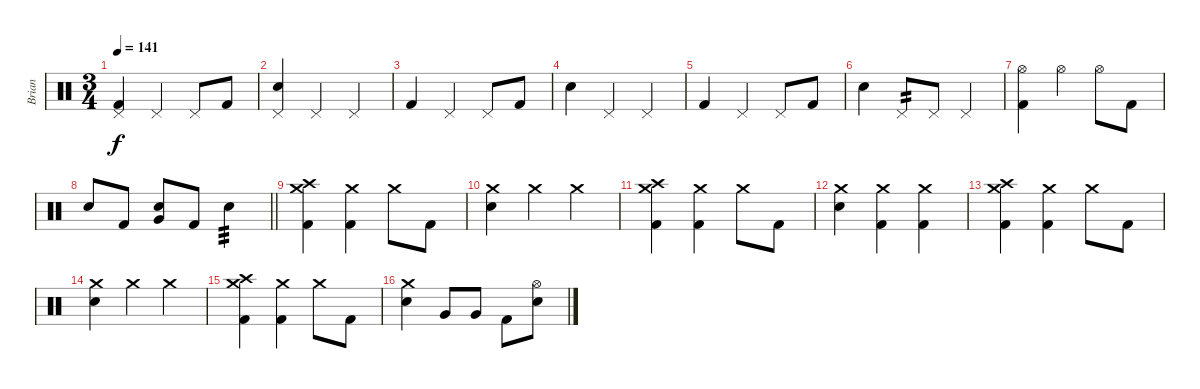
\track ("Brian" "Brian") {instrument percussion}
\staff {score}
\articulation defaults
\ts (3 4)
\tempo 141
\clef neutral
\ks c
("Pedal Hi-Hat (hit)" "Kick (hit) 2").4{dy f} "Pedal Hi-Hat (hit)".4 "Pedal Hi-Hat (hit)".8 "Kick (hit) 2".8 |
("Pedal Hi-Hat (hit)" "Electric Snare (hit)").4 "Pedal Hi-Hat (hit)".4 "Pedal Hi-Hat (hit)".4 |
"Kick (hit) 2".4 "Pedal Hi-Hat (hit)".4 "Pedal Hi-Hat (hit)".8 "Kick (hit) 2".8 |
"Electric Snare (hit)".4 "Pedal Hi-Hat (hit)".4 "Pedal Hi-Hat (hit)".4 |
"Kick (hit) 2".4 "Pedal Hi-Hat (hit)".4 "Pedal Hi-Hat (hit)".8 "Kick (hit) 2".8 |
"Electric Snare (hit)".4 "Pedal Hi-Hat (hit)".8{tp 2} "Pedal Hi-Hat (hit)".8 "Pedal Hi-Hat (hit)".4 |
("Hi-Hat (open)" "Kick (hit) 2").4 "Hi-Hat (open)".4 "Hi-Hat (open)".8 "Kick (hit) 2".8 |
\barLineRight lightlight "Electric Snare (hit)".8 "Kick (hit) 2".8
("Very Low Tom (hit)" "Electric Snare (hit)").8 "Kick (hit) 2".8 "Electric Snare (hit)".4{tp 3} |
("Crash high (hit)" "Crash medium (hit)" "Kick (hit) 2").4 ("Crash medium (hit)" "Kick (hit) 2").4 "Crash medium (hit)".8 "Kick (hit) 2".8 |
("Crash medium (hit)" "Electric Snare (hit)").4 "Crash medium (hit)".4 "Crash medium (hit)".4 |
("Crash high (hit)" "Crash medium (hit)" "Kick (hit) 2").4 ("Crash medium (hit)" "Kick (hit) 2").4 "Crash medium (hit)".8 "Kick (hit) 2".8 |
("Crash medium (hit)" "Electric Snare (hit)").4 ("Crash medium (hit)" "Kick (hit) 2").4 ("Crash medium (hit)" "Kick (hit) 2").4 |
("Crash high (hit)" "Crash medium (hit)" "Kick (hit) 2").4 ("Crash medium (hit)" "Kick (hit) 2").4 "Crash medium (hit)".8 "Kick (hit) 2".8 |
("Crash medium (hit)" "Electric Snare (hit)").4 "Crash medium (hit)".4 "Crash medium (hit)".4 |
("Crash high (hit)" "Crash medium (hit)" "Kick (hit) 2").4 ("Crash medium (hit)" "Kick (hit) 2").4 "Crash medium (hit)".8 "Kick (hit) 2".8 |
("Crash medium (hit)" "Electric Snare (hit)").4 "Very Low Tom (hit)".8 "Very Low Tom (hit)".8 "Kick (hit) 2".8 ("Hi-Hat (open)" "Electric Snare (hit)").8
